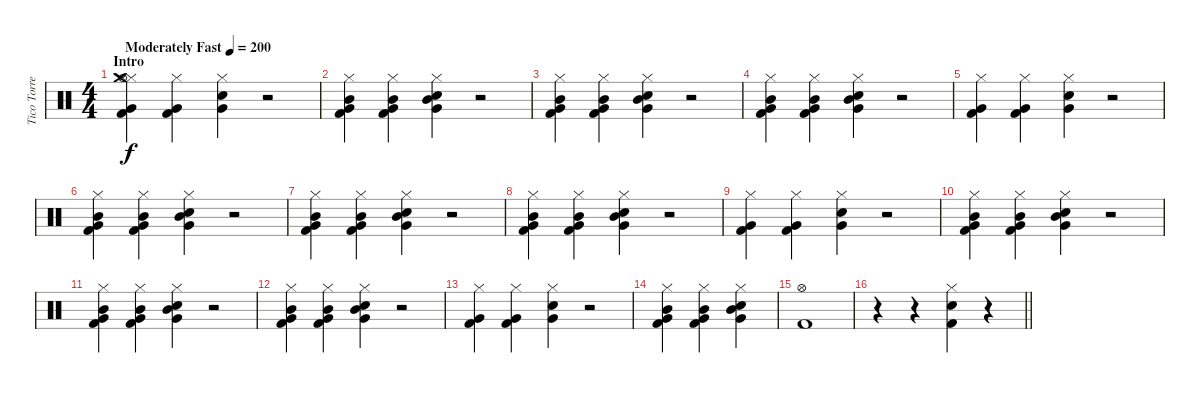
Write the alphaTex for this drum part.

\track ("Tico Torres" "Tico Torre") {instrument percussion}
\staff {score}
\articulation defaults
\ts (4 4)
\section ("" "Intro")
\tempo (200 "Moderately Fast")
\clef neutral
\ks c
("Hi-Hat (closed)" "Hi-Hat (open)" "Crash medium (hit)" "Very Low Tom (hit)" "Kick (hit) 2").4{dy f} ("Hi-Hat (closed)" "Very Low Tom (hit)" "Kick (hit) 2").4 ("Hi-Hat (closed)" "Very Low Tom (hit)" "Snare (hit) 2").4 r.2 |
("Hi-Hat (closed)" "Very Low Tom (hit)" "Mid Tom (hit)" "Kick (hit) 2").4 ("Hi-Hat (closed)" "Very Low Tom (hit)" "Mid Tom (hit)" "Kick (hit) 2").4 ("Hi-Hat (closed)" "Very Low Tom (hit)" "Mid Tom (hit)" "Snare (hit) 2").4 r.2 |
("Hi-Hat (closed)" "Very Low Tom (hit)" "Mid Tom (hit)" "Kick (hit) 2").4 ("Hi-Hat (closed)" "Very Low Tom (hit)" "Mid Tom (hit)" "Kick (hit) 2").4 ("Hi-Hat (closed)" "Very Low Tom (hit)" "Mid Tom (hit)" "Snare (hit) 2").4 r.2 |
("Hi-Hat (closed)" "Very Low Tom (hit)" "Mid Tom (hit)" "Kick (hit) 2").4 ("Hi-Hat (closed)" "Very Low Tom (hit)" "Mid Tom (hit)" "Kick (hit) 2").4 ("Hi-Hat (closed)" "Very Low Tom (hit)" "Mid Tom (hit)" "Snare (hit) 2").4 r.2 |
("Hi-Hat (closed)" "Very Low Tom (hit)" "Kick (hit) 2").4 ("Hi-Hat (closed)" "Very Low Tom (hit)" "Kick (hit) 2").4 ("Hi-Hat (closed)" "Very Low Tom (hit)" "Snare (hit) 2").4 r.2 |
("Hi-Hat (closed)" "Very Low Tom (hit)" "Mid Tom (hit)" "Kick (hit) 2").4 ("Hi-Hat (closed)" "Very Low Tom (hit)" "Mid Tom (hit)" "Kick (hit) 2").4 ("Hi-Hat (closed)" "Very Low Tom (hit)" "Mid Tom (hit)" "Snare (hit) 2").4 r.2 |
("Hi-Hat (closed)" "Very Low Tom (hit)" "Mid Tom (hit)" "Kick (hit) 2").4 ("Hi-Hat (closed)" "Very Low Tom (hit)" "Mid Tom (hit)" "Kick (hit) 2").4 ("Hi-Hat (closed)" "Very Low Tom (hit)" "Mid Tom (hit)" "Snare (hit) 2").4 r.2 |
("Hi-Hat (closed)" "Very Low Tom (hit)" "Mid Tom (hit)" "Kick (hit) 2").4 ("Hi-Hat (closed)" "Very Low Tom (hit)" "Mid Tom (hit)" "Kick (hit) 2").4 ("Hi-Hat (closed)" "Very Low Tom (hit)" "Mid Tom (hit)" "Snare (hit) 2").4 r.2 |
("Hi-Hat (closed)" "Very Low Tom (hit)" "Kick (hit) 2").4 ("Hi-Hat (closed)" "Very Low Tom (hit)" "Kick (hit) 2").4 ("Hi-Hat (closed)" "Very Low Tom (hit)" "Snare (hit) 2").4 r.2 |
("Hi-Hat (closed)" "Very Low Tom (hit)" "Mid Tom (hit)" "Kick (hit) 2").4 ("Hi-Hat (closed)" "Very Low Tom (hit)" "Mid Tom (hit)" "Kick (hit) 2").4 ("Hi-Hat (closed)" "Very Low Tom (hit)" "Mid Tom (hit)" "Snare (hit) 2").4 r.2 |
("Hi-Hat (closed)" "Very Low Tom (hit)" "Mid Tom (hit)" "Kick (hit) 2").4 ("Hi-Hat (closed)" "Very Low Tom (hit)" "Mid Tom (hit)" "Kick (hit) 2").4 ("Hi-Hat (closed)" "Very Low Tom (hit)" "Mid Tom (hit)" "Snare (hit) 2").4 r.2 |
("Hi-Hat (closed)" "Very Low Tom (hit)" "Mid Tom (hit)" "Kick (hit) 2").4 ("Hi-Hat (closed)" "Very Low Tom (hit)" "Mid Tom (hit)" "Kick (hit) 2").4 ("Hi-Hat (closed)" "Very Low Tom (hit)" "Mid Tom (hit)" "Snare (hit) 2").4 r.2 |
("Hi-Hat (closed)" "Very Low Tom (hit)" "Kick (hit) 2").4 ("Hi-Hat (closed)" "Very Low Tom (hit)" "Kick (hit) 2").4 ("Hi-Hat (closed)" "Very Low Tom (hit)" "Snare (hit) 2").4 r.2 |
("Hi-Hat (closed)" "Very Low Tom (hit)" "Mid Tom (hit)" "Kick (hit) 2").4 ("Hi-Hat (closed)" "Very Low Tom (hit)" "Mid Tom (hit)" "Kick (hit) 2").4 ("Hi-Hat (closed)" "Very Low Tom (hit)" "Mid Tom (hit)" "Snare (hit) 2").4 |
("Hi-Hat (open)" "Kick (hit) 2").1 |
\barLineRight lightlight
r.4 r.4 ("Hi-Hat (closed)" "Snare (hit) 2" "Kick (hit) 2").4 r.4
